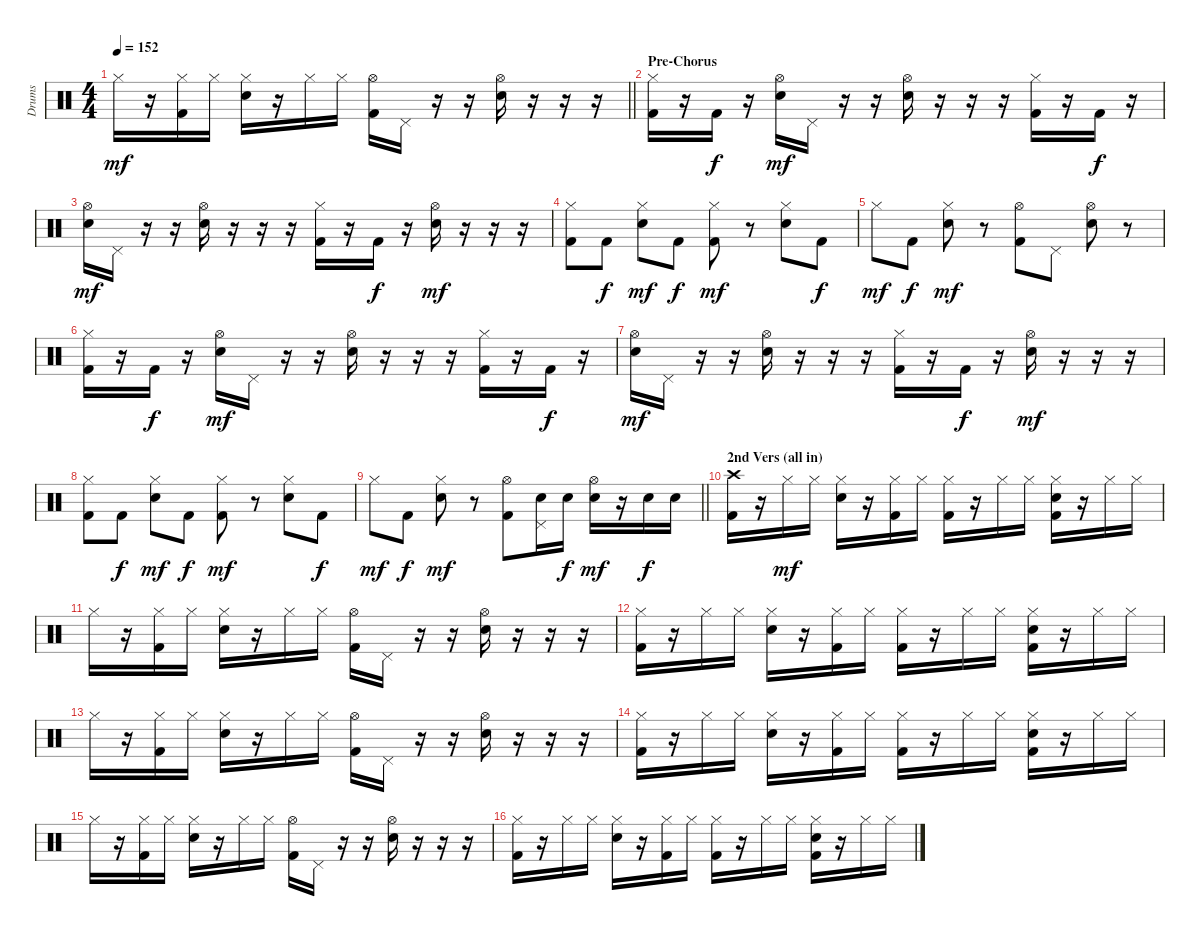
\track ("Drums" "Drums") {instrument percussion}
\staff {score}
\articulation defaults
\ts (4 4)
\tempo 152
\clef neutral
\barLineRight lightlight
\ks c "Hi-Hat (closed)".16{dy mf}
r.16 ("Hi-Hat (closed)" "Kick (hit) 2").16 "Hi-Hat (closed)".16 ("Hi-Hat (closed)" "Snare (hit) 2").16 r.16 "Hi-Hat (closed)".16 "Hi-Hat (closed)".16 ("Hi-Hat (open)" "Kick (hit) 2").16 "Pedal Hi-Hat (hit)".16 r.16 r.16 ("Hi-Hat (open)" "Snare (hit) 2").16 r.16 r.16 r.16 |
\section ("" "Pre-Chorus")
("Hi-Hat (closed)" "Kick (hit) 2").16 r.16 "Kick (hit) 2".16{dy f} r.16 ("Hi-Hat (open)" "Snare (hit) 2").16{dy mf} "Pedal Hi-Hat (hit)".16 r.16 r.16 ("Hi-Hat (open)" "Snare (hit) 2").16 r.16 r.16 r.16 ("Hi-Hat (closed)" "Kick (hit) 2").16 r.16 "Kick (hit) 2".16{dy f} r.16 |
("Hi-Hat (open)" "Snare (hit) 2").16{dy mf} "Pedal Hi-Hat (hit)".16 r.16 r.16 ("Hi-Hat (open)" "Snare (hit) 2").16 r.16 r.16 r.16 ("Hi-Hat (closed)" "Kick (hit) 2").16 r.16 "Kick (hit) 2".16{dy f} r.16 ("Hi-Hat (open)" "Snare (hit) 2").16{dy mf} r.16 r.16 r.16 |
("Hi-Hat (closed)" "Kick (hit) 2").8 "Kick (hit) 2".8{dy f} ("Hi-Hat (closed)" "Snare (hit) 2").8{dy mf} "Kick (hit) 2".8{dy f} ("Hi-Hat (closed)" "Kick (hit) 2").8{dy mf} r.8 ("Hi-Hat (closed)" "Snare (hit) 2").8 "Kick (hit) 2".8{dy f} |
"Hi-Hat (closed)".8{dy mf} "Kick (hit) 2".8{dy f} ("Hi-Hat (closed)" "Snare (hit) 2").8{dy mf} r.8 ("Hi-Hat (open)" "Kick (hit) 2").8 "Pedal Hi-Hat (hit)".8 ("Hi-Hat (open)" "Snare (hit) 2").8 r.8 |
("Hi-Hat (closed)" "Kick (hit) 2").16 r.16 "Kick (hit) 2".16{dy f} r.16 ("Hi-Hat (open)" "Snare (hit) 2").16{dy mf} "Pedal Hi-Hat (hit)".16 r.16 r.16 ("Hi-Hat (open)" "Snare (hit) 2").16 r.16 r.16 r.16 ("Hi-Hat (closed)" "Kick (hit) 2").16 r.16 "Kick (hit) 2".16{dy f} r.16 |
("Hi-Hat (open)" "Snare (hit) 2").16{dy mf} "Pedal Hi-Hat (hit)".16 r.16 r.16 ("Hi-Hat (open)" "Snare (hit) 2").16 r.16 r.16 r.16 ("Hi-Hat (closed)" "Kick (hit) 2").16 r.16 "Kick (hit) 2".16{dy f} r.16 ("Hi-Hat (open)" "Snare (hit) 2").16{dy mf} r.16 r.16 r.16 |
("Hi-Hat (closed)" "Kick (hit) 2").8 "Kick (hit) 2".8{dy f} ("Hi-Hat (closed)" "Snare (hit) 2").8{dy mf} "Kick (hit) 2".8{dy f} ("Hi-Hat (closed)" "Kick (hit) 2").8{dy mf} r.8 ("Hi-Hat (closed)" "Snare (hit) 2").8 "Kick (hit) 2".8{dy f} |
\barLineRight lightlight "Hi-Hat (closed)".8{dy mf} "Kick (hit) 2".8{dy f}
("Hi-Hat (closed)" "Snare (hit) 2").8{dy mf} r.8 ("Hi-Hat (open)" "Kick (hit) 2").8 ("Pedal Hi-Hat (hit)" "Snare (hit) 2").16 "Snare (hit) 2".16{dy f} ("Hi-Hat (open)" "Snare (hit) 2").16{dy mf} r.16 "Snare (hit) 2".16{dy f} "Snare (hit) 2".16 |
\section ("" "2nd Vers (all in)")
("Crash high (hit)" "Kick (hit) 2").16 r.16 "Hi-Hat (closed)".16{dy mf} "Hi-Hat (closed)".16 ("Hi-Hat (closed)" "Snare (hit) 2").16 r.16 ("Hi-Hat (closed)" "Kick (hit) 2").16 "Hi-Hat (closed)".16 ("Hi-Hat (closed)" "Kick (hit) 2").16 r.16 "Hi-Hat (closed)".16 "Hi-Hat (closed)".16 ("Hi-Hat (closed)" "Snare (hit) 2" "Kick (hit) 2").16 r.16 "Hi-Hat (closed)".16 "Hi-Hat (closed)".16 |
"Hi-Hat (closed)".16 r.16 ("Hi-Hat (closed)" "Kick (hit) 2").16 "Hi-Hat (closed)".16 ("Hi-Hat (closed)" "Snare (hit) 2").16 r.16 "Hi-Hat (closed)".16 "Hi-Hat (closed)".16 ("Hi-Hat (open)" "Kick (hit) 2").16 "Pedal Hi-Hat (hit)".16 r.16 r.16 ("Hi-Hat (open)" "Snare (hit) 2").16 r.16 r.16 r.16 |
("Hi-Hat (closed)" "Kick (hit) 2").16 r.16 "Hi-Hat (closed)".16 "Hi-Hat (closed)".16 ("Hi-Hat (closed)" "Snare (hit) 2").16 r.16 ("Hi-Hat (closed)" "Kick (hit) 2").16 "Hi-Hat (closed)".16 ("Hi-Hat (closed)" "Kick (hit) 2").16 r.16 "Hi-Hat (closed)".16 "Hi-Hat (closed)".16 ("Hi-Hat (closed)" "Snare (hit) 2" "Kick (hit) 2").16 r.16 "Hi-Hat (closed)".16 "Hi-Hat (closed)".16 |
"Hi-Hat (closed)".16 r.16 ("Hi-Hat (closed)" "Kick (hit) 2").16 "Hi-Hat (closed)".16 ("Hi-Hat (closed)" "Snare (hit) 2").16 r.16 "Hi-Hat (closed)".16 "Hi-Hat (closed)".16 ("Hi-Hat (open)" "Kick (hit) 2").16 "Pedal Hi-Hat (hit)".16 r.16 r.16 ("Hi-Hat (open)" "Snare (hit) 2").16 r.16 r.16 r.16 |
("Hi-Hat (closed)" "Kick (hit) 2").16 r.16 "Hi-Hat (closed)".16 "Hi-Hat (closed)".16 ("Hi-Hat (closed)" "Snare (hit) 2").16 r.16 ("Hi-Hat (closed)" "Kick (hit) 2").16 "Hi-Hat (closed)".16 ("Hi-Hat (closed)" "Kick (hit) 2").16 r.16 "Hi-Hat (closed)".16 "Hi-Hat (closed)".16 ("Hi-Hat (closed)" "Snare (hit) 2" "Kick (hit) 2").16 r.16 "Hi-Hat (closed)".16 "Hi-Hat (closed)".16 |
"Hi-Hat (closed)".16 r.16 ("Hi-Hat (closed)" "Kick (hit) 2").16 "Hi-Hat (closed)".16 ("Hi-Hat (closed)" "Snare (hit) 2").16 r.16 "Hi-Hat (closed)".16 "Hi-Hat (closed)".16 ("Hi-Hat (open)" "Kick (hit) 2").16 "Pedal Hi-Hat (hit)".16 r.16 r.16 ("Hi-Hat (open)" "Snare (hit) 2").16 r.16 r.16 r.16 |
("Hi-Hat (closed)" "Kick (hit) 2").16 r.16 "Hi-Hat (closed)".16 "Hi-Hat (closed)".16 ("Hi-Hat (closed)" "Snare (hit) 2").16 r.16 ("Hi-Hat (closed)" "Kick (hit) 2").16 "Hi-Hat (closed)".16 ("Hi-Hat (closed)" "Kick (hit) 2").16 r.16 "Hi-Hat (closed)".16 "Hi-Hat (closed)".16 ("Hi-Hat (closed)" "Snare (hit) 2" "Kick (hit) 2").16 r.16 "Hi-Hat (closed)".16 "Hi-Hat (closed)".16
